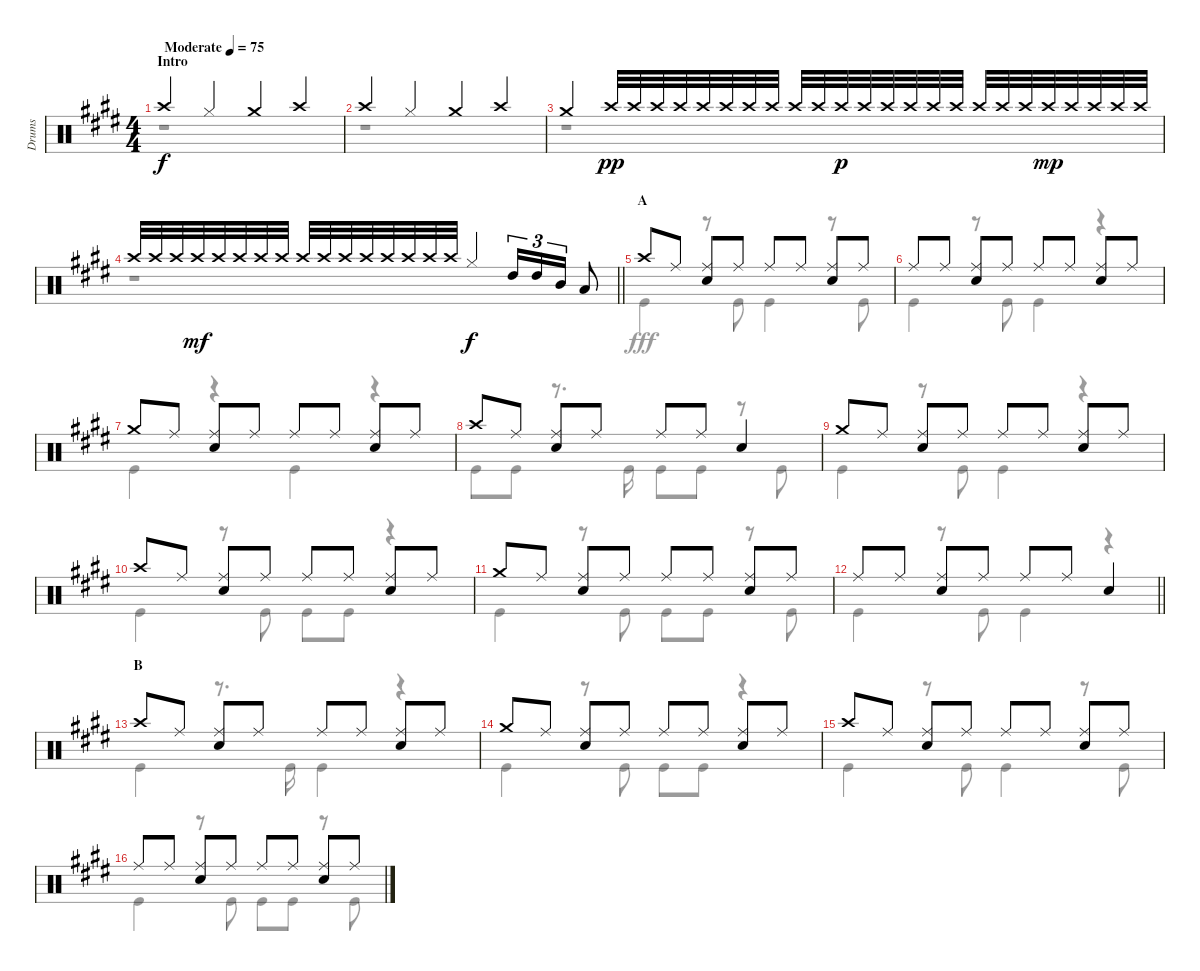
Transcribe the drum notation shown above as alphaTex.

\track ("Drums" "Drums") {instrument percussion}
\staff {score}
\articulation defaults
\voice
\ts (4 4)
\section ("" "Intro")
\tempo (75 "Moderate")
\clef neutral
\ks e "Crash high (hit)".4{dy f} "Hi-Hat (closed)".4 "Crash medium (hit)".4 "Crash high (hit)".4
|
"Crash high (hit)".4 "Hi-Hat (closed)".4 "Crash medium (hit)".4 "Crash high (hit)".4 |
"Crash medium (hit)".4 "Crash high (hit)".32{dy pp} "Crash high (hit)".32 "Crash high (hit)".32 "Crash high (hit)".32 "Crash high (hit)".32 "Crash high (hit)".32 "Crash high (hit)".32 "Crash high (hit)".32 "Crash high (hit)".32 "Crash high (hit)".32 "Crash high (hit)".32{dy p} "Crash high (hit)".32 "Crash high (hit)".32 "Crash high (hit)".32 "Crash high (hit)".32 "Crash high (hit)".32 "Crash high (hit)".32 "Crash high (hit)".32 "Crash high (hit)".32 "Crash high (hit)".32{dy mp} "Crash high (hit)".32 "Crash high (hit)".32 "Crash high (hit)".32 "Crash high (hit)".32 |
\barLineRight lightlight "Crash high (hit)".32 "Crash high (hit)".32 "Crash high (hit)".32 "Crash high (hit)".32{dy mf} "Crash high (hit)".32 "Crash high (hit)".32 "Crash high (hit)".32 "Crash high (hit)".32 "Crash high (hit)".32 "Crash high (hit)".32 "Crash high (hit)".32 "Crash high (hit)".32 "Crash high (hit)".32 "Crash high (hit)".32 "Crash high (hit)".32 "Crash high (hit)".32 "Hi-Hat (closed)".4{dy f} "High Tom (hit)".16{tu (3 2)} "High Tom (hit)".16{tu (3 2)} "Mid Tom (hit)".16{tu (3 2)} "Low Tom (hit)".8
|
\section ("" "A")
"Crash high (hit)".8 "Ride (middle)".8 ("Ride (middle)" "Snare (hit) 2").8 "Ride (middle)".8 "Ride (middle)".8 "Ride (middle)".8 ("Ride (middle)" "Snare (hit) 2").8 "Ride (middle)".8 |
"Ride (middle)".8 "Ride (middle)".8 ("Ride (middle)" "Snare (hit) 2").8 "Ride (middle)".8 "Ride (middle)".8 "Ride (middle)".8 ("Ride (middle)" "Snare (hit) 2").8 "Ride (middle)".8 |
"Crash medium (hit)".8 "Ride (middle)".8 ("Ride (middle)" "Snare (hit) 2").8 "Ride (middle)".8 "Ride (middle)".8 "Ride (middle)".8 ("Ride (middle)" "Snare (hit) 2").8 "Ride (middle)".8 |
"Crash high (hit)".8 "Ride (middle)".8 ("Ride (middle)" "Snare (hit) 2").8 "Ride (middle)".8 "Ride (middle)".8 "Ride (middle)".8 "Snare (hit) 2".4 |
"Crash medium (hit)".8 "Ride (middle)".8 ("Ride (middle)" "Snare (hit) 2").8 "Ride (middle)".8 "Ride (middle)".8 "Ride (middle)".8 ("Ride (middle)" "Snare (hit) 2").8 "Ride (middle)".8 |
"Crash high (hit)".8 "Ride (middle)".8 ("Ride (middle)" "Snare (hit) 2").8 "Ride (middle)".8 "Ride (middle)".8 "Ride (middle)".8 ("Ride (middle)" "Snare (hit) 2").8 "Ride (middle)".8 |
"Crash medium (hit)".8 "Ride (middle)".8 ("Ride (middle)" "Snare (hit) 2").8 "Ride (middle)".8 "Ride (middle)".8 "Ride (middle)".8 ("Ride (middle)" "Snare (hit) 2").8 "Ride (middle)".8 |
\barLineRight lightlight "Ride (middle)".8 "Ride (middle)".8
("Ride (middle)" "Snare (hit) 2").8 "Ride (middle)".8 "Ride (middle)".8 "Ride (middle)".8 "Snare (hit) 2".4 |
\section ("" "B")
"Crash high (hit)".8 "Ride (middle)".8 ("Ride (middle)" "Snare (hit) 2").8 "Ride (middle)".8 "Ride (middle)".8 "Ride (middle)".8 ("Ride (middle)" "Snare (hit) 2").8 "Ride (middle)".8 |
"Crash medium (hit)".8 "Ride (middle)".8 ("Ride (middle)" "Snare (hit) 2").8 "Ride (middle)".8 "Ride (middle)".8 "Ride (middle)".8 ("Ride (middle)" "Snare (hit) 2").8 "Ride (middle)".8 |
"Crash high (hit)".8 "Ride (middle)".8 ("Ride (middle)" "Snare (hit) 2").8 "Ride (middle)".8 "Ride (middle)".8 "Ride (middle)".8 ("Ride (middle)" "Snare (hit) 2").8 "Ride (middle)".8 |
"Ride (middle)".8 "Ride (middle)".8 ("Ride (middle)" "Snare (hit) 2").8 "Ride (middle)".8 "Ride (middle)".8 "Ride (middle)".8 ("Ride (middle)" "Snare (hit) 2").8 "Ride (middle)".8
\voice
\clef neutral
\ottava regular
\simile none
\ks e
r.1{dy fff} |
r.1 |
r.1 |
\barLineRight lightlight
r.1 |
"Kick (hit)".4 r.8 "Kick (hit)".8 "Kick (hit)".4 r.8 "Kick (hit)".8 |
"Kick (hit)".4 r.8 "Kick (hit)".8 "Kick (hit)".4 r.4 |
"Kick (hit)".4 r.4 "Kick (hit)".4 r.4 |
"Kick (hit)".8 "Kick (hit)".8 r.8{d} "Kick (hit)".16 "Kick (hit)".8 "Kick (hit)".8 r.8 "Kick (hit)".8 |
"Kick (hit)".4 r.8 "Kick (hit)".8 "Kick (hit)".4 r.4 |
"Kick (hit)".4 r.8 "Kick (hit)".8 "Kick (hit)".8 "Kick (hit)".8 r.4 |
"Kick (hit)".4 r.8 "Kick (hit)".8 "Kick (hit)".8 "Kick (hit)".8 r.8 "Kick (hit)".8 |
\barLineRight lightlight "Kick (hit)".4
r.8 "Kick (hit)".8 "Kick (hit)".4 r.4 |
"Kick (hit)".4 r.8{d} "Kick (hit)".16 "Kick (hit)".4 r.4 |
"Kick (hit)".4 r.8 "Kick (hit)".8 "Kick (hit)".8 "Kick (hit)".8 r.4 |
"Kick (hit)".4 r.8 "Kick (hit)".8 "Kick (hit)".4 r.8 "Kick (hit)".8 |
"Kick (hit)".4 r.8 "Kick (hit)".8 "Kick (hit)".8 "Kick (hit)".8 r.8 "Kick (hit)".8
